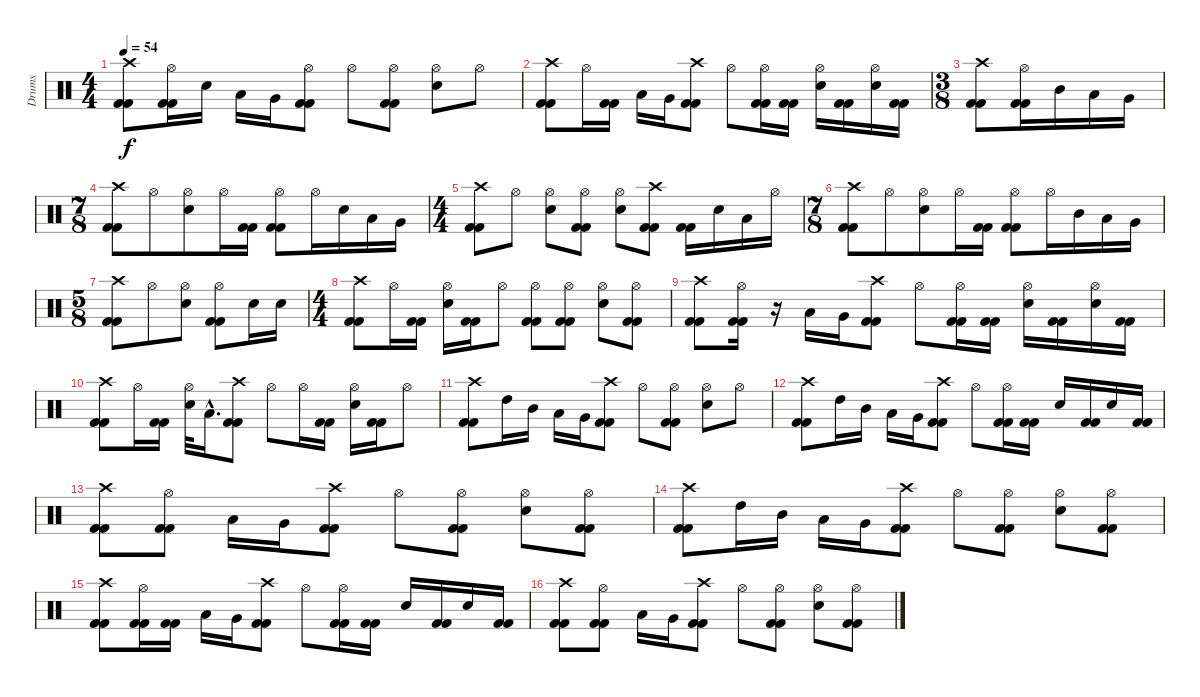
\track ("Drums" "Drums") {instrument percussion}
\staff {score}
\articulation defaults
\ts (4 4)
\tempo 54
\clef neutral
\ks c
("Kick (hit) 2" "Kick (hit) 2" "Crash high (hit)").8{dy f} ("Kick (hit) 2" "Kick (hit) 2" "Hi-Hat (open)").16 "Snare (hit) 2".16 "Low Tom (hit)".16 "Very Low Tom (hit)".16 ("Kick (hit) 2" "Kick (hit) 2" "Hi-Hat (open)").8 "Hi-Hat (open)".8 ("Kick (hit) 2" "Kick (hit) 2" "Hi-Hat (open)").8 ("Snare (hit) 2" "Hi-Hat (open)").8 "Hi-Hat (open)".8 |
("Kick (hit) 2" "Kick (hit) 2" "Crash high (hit)").8 "Hi-Hat (open)".16 ("Kick (hit) 2" "Kick (hit) 2").16 "Low Tom (hit)".16 "Very Low Tom (hit)".16 ("Kick (hit) 2" "Kick (hit) 2" "Crash high (hit)").8 "Hi-Hat (open)".8 ("Kick (hit) 2" "Kick (hit) 2" "Hi-Hat (open)").16 ("Kick (hit) 2" "Kick (hit) 2").16 ("Snare (hit) 2" "Hi-Hat (open)").16 ("Kick (hit) 2" "Kick (hit) 2").16 ("Snare (hit) 2" "Hi-Hat (open)").16 ("Kick (hit) 2" "Kick (hit) 2").16 |
\ts (3 8)
("Kick (hit) 2" "Kick (hit) 2" "Crash high (hit)").8 ("Kick (hit) 2" "Kick (hit) 2" "Hi-Hat (open)").16 "Mid Tom (hit)".16 "Low Tom (hit)".16 "Very Low Tom (hit)".16 |
\ts (7 8)
("Kick (hit) 2" "Kick (hit) 2" "Crash high (hit)").8 "Hi-Hat (open)".8 ("Snare (hit) 2" "Hi-Hat (open)").8 "Hi-Hat (open)".16 ("Kick (hit) 2" "Kick (hit) 2").16 ("Kick (hit) 2" "Kick (hit) 2" "Hi-Hat (open)").8 "Hi-Hat (open)".16 "Snare (hit) 2".16 "Low Tom (hit)".16 "Very Low Tom (hit)".16 |
\ts (4 4)
("Kick (hit) 2" "Kick (hit) 2" "Crash high (hit)").8 "Hi-Hat (open)".8 ("Snare (hit) 2" "Hi-Hat (open)").8 ("Kick (hit) 2" "Kick (hit) 2" "Hi-Hat (open)").8 ("Snare (hit) 2" "Hi-Hat (open)").8 ("Kick (hit) 2" "Kick (hit) 2" "Crash high (hit)").8 ("Kick (hit) 2" "Kick (hit) 2").16 "Snare (hit) 2".16 "Low Tom (hit)".16 "Hi-Hat (open)".16 |
\ts (7 8)
("Kick (hit) 2" "Kick (hit) 2" "Crash high (hit)").8 "Hi-Hat (open)".8 ("Snare (hit) 2" "Hi-Hat (open)").8 "Hi-Hat (open)".16 ("Kick (hit) 2" "Kick (hit) 2").16 ("Kick (hit) 2" "Kick (hit) 2" "Hi-Hat (open)").8 "Hi-Hat (open)".16 "Mid Tom (hit)".16 "Low Tom (hit)".16 "Very Low Tom (hit)".16 |
\ts (5 8)
("Kick (hit) 2" "Kick (hit) 2" "Crash high (hit)").8 "Hi-Hat (open)".8 ("Snare (hit) 2" "Hi-Hat (open)").8 ("Kick (hit) 2" "Kick (hit) 2" "Hi-Hat (open)").8 "Snare (hit) 2".16 "Snare (hit) 2".16 |
\ts (4 4)
("Kick (hit) 2" "Kick (hit) 2" "Crash high (hit)").8 "Hi-Hat (open)".16 ("Kick (hit) 2" "Kick (hit) 2").16 ("Snare (hit) 2" "Hi-Hat (open)").16 ("Kick (hit) 2" "Kick (hit) 2").16 "Hi-Hat (open)".8 ("Kick (hit) 2" "Kick (hit) 2" "Hi-Hat (open)").8 ("Kick (hit) 2" "Kick (hit) 2" "Hi-Hat (open)").8 ("Snare (hit) 2" "Hi-Hat (open)").8 ("Kick (hit) 2" "Kick (hit) 2" "Hi-Hat (open)").8 |
("Kick (hit) 2" "Kick (hit) 2" "Crash high (hit)").8 ("Kick (hit) 2" "Kick (hit) 2" "Hi-Hat (open)").16 r.16 "Low Tom (hit)".16 "Very Low Tom (hit)".16 ("Kick (hit) 2" "Kick (hit) 2" "Crash high (hit)").8 "Hi-Hat (open)".8 ("Kick (hit) 2" "Kick (hit) 2" "Hi-Hat (open)").16 ("Kick (hit) 2" "Kick (hit) 2").16 ("Snare (hit) 2" "Hi-Hat (open)").16 ("Kick (hit) 2" "Kick (hit) 2").16 ("Snare (hit) 2" "Hi-Hat (open)").16 ("Kick (hit) 2" "Kick (hit) 2").16 |
("Kick (hit) 2" "Kick (hit) 2" "Crash high (hit)").8 "Hi-Hat (open)".16 ("Kick (hit) 2" "Kick (hit) 2").16 ("Snare (hit) 2" "Hi-Hat (open)").32 "Low Tom (hit)"{hac}.16{d} ("Kick (hit) 2" "Kick (hit) 2" "Crash high (hit)").8 "Hi-Hat (open)".8 "Hi-Hat (open)".16 ("Kick (hit) 2" "Kick (hit) 2").16 ("Snare (hit) 2" "Hi-Hat (open)").16 ("Kick (hit) 2" "Kick (hit) 2").16 "Hi-Hat (open)".8 |
("Kick (hit) 2" "Kick (hit) 2" "Crash high (hit)").8 "High Tom (hit)".16 "Mid Tom (hit)".16 "Low Tom (hit)".16 "Very Low Tom (hit)".16 ("Kick (hit) 2" "Kick (hit) 2" "Crash high (hit)").8 "Hi-Hat (open)".8 ("Kick (hit) 2" "Kick (hit) 2" "Hi-Hat (open)").8 ("Snare (hit) 2" "Hi-Hat (open)").8 "Hi-Hat (open)".8 |
("Kick (hit) 2" "Kick (hit) 2" "Crash high (hit)").8 "High Tom (hit)".16 "Mid Tom (hit)".16 "Low Tom (hit)".16 "Very Low Tom (hit)".16 ("Kick (hit) 2" "Kick (hit) 2" "Crash high (hit)").8 "Hi-Hat (open)".8 ("Kick (hit) 2" "Kick (hit) 2" "Hi-Hat (open)").16 ("Kick (hit) 2" "Kick (hit) 2").16 "Snare (hit) 2".16 ("Kick (hit) 2" "Kick (hit) 2").16 "Snare (hit) 2".16 ("Kick (hit) 2" "Kick (hit) 2").16 |
("Kick (hit) 2" "Kick (hit) 2" "Crash high (hit)").8 ("Kick (hit) 2" "Kick (hit) 2" "Hi-Hat (open)").8 "Low Tom (hit)".16 "Very Low Tom (hit)".16 ("Kick (hit) 2" "Kick (hit) 2" "Crash high (hit)").8 "Hi-Hat (open)".8 ("Kick (hit) 2" "Kick (hit) 2" "Hi-Hat (open)").8 ("Snare (hit) 2" "Hi-Hat (open)").8 ("Kick (hit) 2" "Kick (hit) 2" "Hi-Hat (open)").8 |
("Kick (hit) 2" "Kick (hit) 2" "Crash high (hit)").8 "High Tom (hit)".16 "Mid Tom (hit)".16 "Low Tom (hit)".16 "Very Low Tom (hit)".16 ("Kick (hit) 2" "Kick (hit) 2" "Crash high (hit)").8 "Hi-Hat (open)".8 ("Kick (hit) 2" "Kick (hit) 2" "Hi-Hat (open)").8 ("Snare (hit) 2" "Hi-Hat (open)").8 ("Kick (hit) 2" "Kick (hit) 2" "Hi-Hat (open)").8 |
("Kick (hit) 2" "Kick (hit) 2" "Crash high (hit)").8 ("Kick (hit) 2" "Kick (hit) 2" "Hi-Hat (open)").16 ("Kick (hit) 2" "Kick (hit) 2").16 "Low Tom (hit)".16 "Very Low Tom (hit)".16 ("Kick (hit) 2" "Kick (hit) 2" "Crash high (hit)").8 "Hi-Hat (open)".8 ("Kick (hit) 2" "Kick (hit) 2" "Hi-Hat (open)").16 ("Kick (hit) 2" "Kick (hit) 2").16 "Snare (hit) 2".16 ("Kick (hit) 2" "Kick (hit) 2").16 "Snare (hit) 2".16 ("Kick (hit) 2" "Kick (hit) 2").16 |
("Kick (hit) 2" "Kick (hit) 2" "Crash high (hit)").8 ("Kick (hit) 2" "Kick (hit) 2" "Hi-Hat (open)").8 "Low Tom (hit)".16 "Very Low Tom (hit)".16 ("Kick (hit) 2" "Kick (hit) 2" "Crash high (hit)").8 "Hi-Hat (open)".8 ("Kick (hit) 2" "Kick (hit) 2" "Hi-Hat (open)").8 ("Snare (hit) 2" "Hi-Hat (open)").8 ("Kick (hit) 2" "Kick (hit) 2" "Hi-Hat (open)").8
